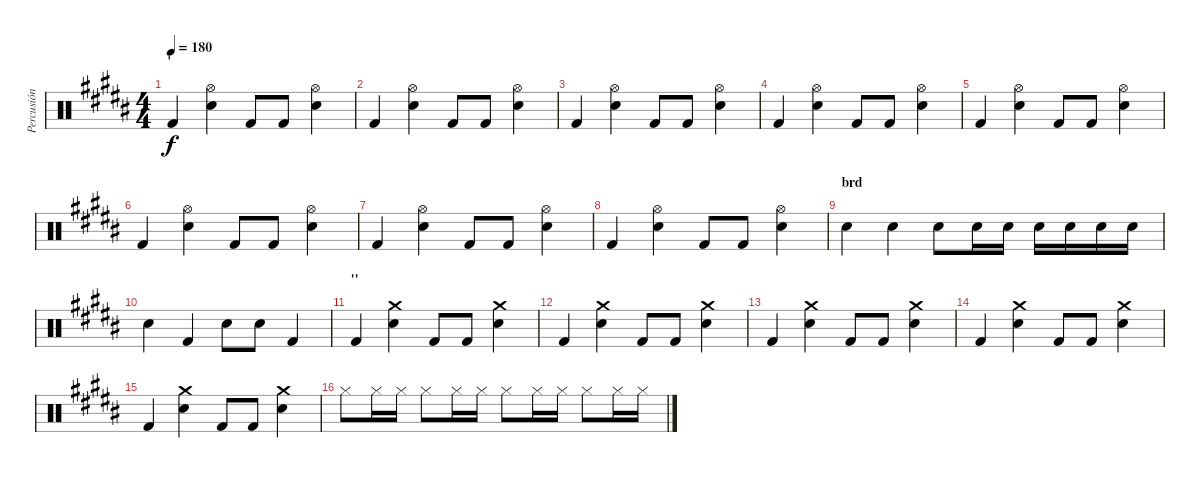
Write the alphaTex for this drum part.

\track ("Percusión" "Percusión") {instrument percussion}
\staff {score}
\articulation defaults
\ts (4 4)
\section ("" "'")
\tempo 180
\clef neutral
\ks b "Kick (hit) 2".4{dy f}
("Hi-Hat (open)" "Electric Snare (hit)").4 "Kick (hit) 2".8 "Kick (hit) 2".8 ("Hi-Hat (open)" "Electric Snare (hit)").4 |
"Kick (hit) 2".4 ("Hi-Hat (open)" "Electric Snare (hit)").4 "Kick (hit) 2".8 "Kick (hit) 2".8 ("Hi-Hat (open)" "Electric Snare (hit)").4 |
"Kick (hit) 2".4 ("Hi-Hat (open)" "Electric Snare (hit)").4 "Kick (hit) 2".8 "Kick (hit) 2".8 ("Hi-Hat (open)" "Electric Snare (hit)").4 |
"Kick (hit) 2".4 ("Hi-Hat (open)" "Electric Snare (hit)").4 "Kick (hit) 2".8 "Kick (hit) 2".8 ("Hi-Hat (open)" "Electric Snare (hit)").4 |
"Kick (hit) 2".4 ("Hi-Hat (open)" "Electric Snare (hit)").4 "Kick (hit) 2".8 "Kick (hit) 2".8 ("Hi-Hat (open)" "Electric Snare (hit)").4 |
"Kick (hit) 2".4 ("Hi-Hat (open)" "Electric Snare (hit)").4 "Kick (hit) 2".8 "Kick (hit) 2".8 ("Hi-Hat (open)" "Electric Snare (hit)").4 |
"Kick (hit) 2".4 ("Hi-Hat (open)" "Electric Snare (hit)").4 "Kick (hit) 2".8 "Kick (hit) 2".8 ("Hi-Hat (open)" "Electric Snare (hit)").4 |
"Kick (hit) 2".4 ("Hi-Hat (open)" "Electric Snare (hit)").4 "Kick (hit) 2".8 "Kick (hit) 2".8 ("Hi-Hat (open)" "Electric Snare (hit)").4 |
\section ("" "brd")
"Electric Snare (hit)".4 "Electric Snare (hit)".4 "Electric Snare (hit)".8 "Electric Snare (hit)".16 "Electric Snare (hit)".16 "Electric Snare (hit)".16 "Electric Snare (hit)".16 "Electric Snare (hit)".16 "Electric Snare (hit)".16 |
"Electric Snare (hit)".4 "Kick (hit) 2".4 "Electric Snare (hit)".8 "Electric Snare (hit)".8 "Kick (hit) 2".4 |
\section ("" "''")
"Kick (hit) 2".4 ("Crash medium (hit)" "Electric Snare (hit)").4 "Kick (hit) 2".8 "Kick (hit) 2".8 ("Crash medium (hit)" "Electric Snare (hit)").4 |
"Kick (hit) 2".4 ("Crash medium (hit)" "Electric Snare (hit)").4 "Kick (hit) 2".8 "Kick (hit) 2".8 ("Crash medium (hit)" "Electric Snare (hit)").4 |
"Kick (hit) 2".4 ("Crash medium (hit)" "Electric Snare (hit)").4 "Kick (hit) 2".8 "Kick (hit) 2".8 ("Crash medium (hit)" "Electric Snare (hit)").4 |
"Kick (hit) 2".4 ("Crash medium (hit)" "Electric Snare (hit)").4 "Kick (hit) 2".8 "Kick (hit) 2".8 ("Crash medium (hit)" "Electric Snare (hit)").4 |
"Kick (hit) 2".4 ("Crash medium (hit)" "Electric Snare (hit)").4 "Kick (hit) 2".8 "Kick (hit) 2".8 ("Crash medium (hit)" "Electric Snare (hit)").4 |
"Hi-Hat (closed)".8 "Hi-Hat (closed)".16 "Hi-Hat (closed)".16 "Hi-Hat (closed)".8 "Hi-Hat (closed)".16 "Hi-Hat (closed)".16 "Hi-Hat (closed)".8 "Hi-Hat (closed)".16 "Hi-Hat (closed)".16 "Hi-Hat (closed)".8 "Hi-Hat (closed)".16 "Hi-Hat (closed)".16
